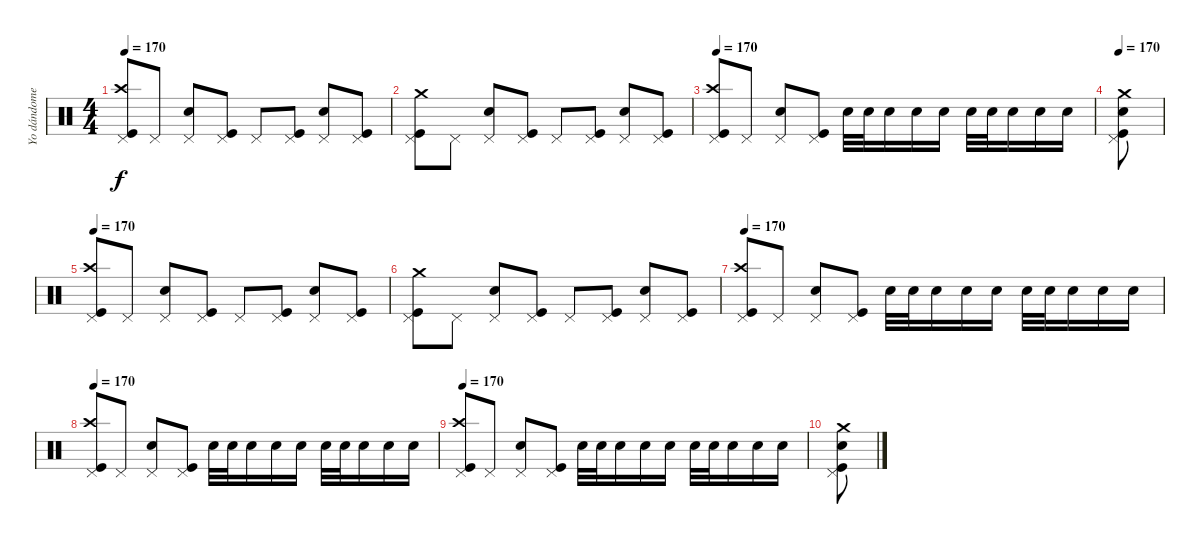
\track ("Yo dándomelas de batero." "Yo dándome") {instrument percussion}
\staff {score}
\articulation defaults
\ts (4 4)
\tempo 170
\clef neutral
\ks c
("Pedal Hi-Hat (hit)" "Crash high (hit)" "Kick (hit)").8{dy f} "Pedal Hi-Hat (hit)".8 ("Pedal Hi-Hat (hit)" "Electric Snare (hit)").8 ("Pedal Hi-Hat (hit)" "Kick (hit)").8 "Pedal Hi-Hat (hit)".8 ("Pedal Hi-Hat (hit)" "Kick (hit)").8 ("Pedal Hi-Hat (hit)" "Electric Snare (hit)").8 ("Pedal Hi-Hat (hit)" "Kick (hit)").8 |
("Pedal Hi-Hat (hit)" "Crash medium (hit)" "Kick (hit)").8 "Pedal Hi-Hat (hit)".8 ("Pedal Hi-Hat (hit)" "Electric Snare (hit)").8 ("Pedal Hi-Hat (hit)" "Kick (hit)").8 "Pedal Hi-Hat (hit)".8 ("Pedal Hi-Hat (hit)" "Kick (hit)").8 ("Pedal Hi-Hat (hit)" "Electric Snare (hit)").8 ("Pedal Hi-Hat (hit)" "Kick (hit)").8 |
\tempo 170
("Pedal Hi-Hat (hit)" "Crash high (hit)" "Kick (hit)").8 "Pedal Hi-Hat (hit)".8 ("Pedal Hi-Hat (hit)" "Electric Snare (hit)").8 ("Pedal Hi-Hat (hit)" "Kick (hit)").8 "Electric Snare (hit)".32 "Electric Snare (hit)".32 "Electric Snare (hit)".16 "Electric Snare (hit)".16 "Electric Snare (hit)".16 "Electric Snare (hit)".32 "Electric Snare (hit)".32 "Electric Snare (hit)".16 "Electric Snare (hit)".16 "Electric Snare (hit)".16 |
\tempo 170
("Pedal Hi-Hat (hit)" "Crash medium (hit)" "Electric Snare (hit)" "Kick (hit)").8 |
\tempo 170
("Pedal Hi-Hat (hit)" "Crash high (hit)" "Kick (hit)").8 "Pedal Hi-Hat (hit)".8 ("Pedal Hi-Hat (hit)" "Electric Snare (hit)").8 ("Pedal Hi-Hat (hit)" "Kick (hit)").8 "Pedal Hi-Hat (hit)".8 ("Pedal Hi-Hat (hit)" "Kick (hit)").8 ("Pedal Hi-Hat (hit)" "Electric Snare (hit)").8 ("Pedal Hi-Hat (hit)" "Kick (hit)").8 |
("Pedal Hi-Hat (hit)" "Crash medium (hit)" "Kick (hit)").8 "Pedal Hi-Hat (hit)".8 ("Pedal Hi-Hat (hit)" "Electric Snare (hit)").8 ("Pedal Hi-Hat (hit)" "Kick (hit)").8 "Pedal Hi-Hat (hit)".8 ("Pedal Hi-Hat (hit)" "Kick (hit)").8 ("Pedal Hi-Hat (hit)" "Electric Snare (hit)").8 ("Pedal Hi-Hat (hit)" "Kick (hit)").8 |
\tempo 170
("Pedal Hi-Hat (hit)" "Crash high (hit)" "Kick (hit)").8 "Pedal Hi-Hat (hit)".8 ("Pedal Hi-Hat (hit)" "Electric Snare (hit)").8 ("Pedal Hi-Hat (hit)" "Kick (hit)").8 "Electric Snare (hit)".32 "Electric Snare (hit)".32 "Electric Snare (hit)".16 "Electric Snare (hit)".16 "Electric Snare (hit)".16 "Electric Snare (hit)".32 "Electric Snare (hit)".32 "Electric Snare (hit)".16 "Electric Snare (hit)".16 "Electric Snare (hit)".16 |
\tempo 170
("Pedal Hi-Hat (hit)" "Crash high (hit)" "Kick (hit)").8 "Pedal Hi-Hat (hit)".8 ("Pedal Hi-Hat (hit)" "Electric Snare (hit)").8 ("Pedal Hi-Hat (hit)" "Kick (hit)").8 "Electric Snare (hit)".32 "Electric Snare (hit)".32 "Electric Snare (hit)".16 "Electric Snare (hit)".16 "Electric Snare (hit)".16 "Electric Snare (hit)".32 "Electric Snare (hit)".32 "Electric Snare (hit)".16 "Electric Snare (hit)".16 "Electric Snare (hit)".16 |
\tempo 170
("Pedal Hi-Hat (hit)" "Crash high (hit)" "Kick (hit)").8 "Pedal Hi-Hat (hit)".8 ("Pedal Hi-Hat (hit)" "Electric Snare (hit)").8 ("Pedal Hi-Hat (hit)" "Kick (hit)").8 "Electric Snare (hit)".32 "Electric Snare (hit)".32 "Electric Snare (hit)".16 "Electric Snare (hit)".16 "Electric Snare (hit)".16 "Electric Snare (hit)".32 "Electric Snare (hit)".32 "Electric Snare (hit)".16 "Electric Snare (hit)".16 "Electric Snare (hit)".16 |
("Pedal Hi-Hat (hit)" "Crash medium (hit)" "Electric Snare (hit)" "Kick (hit)").8
